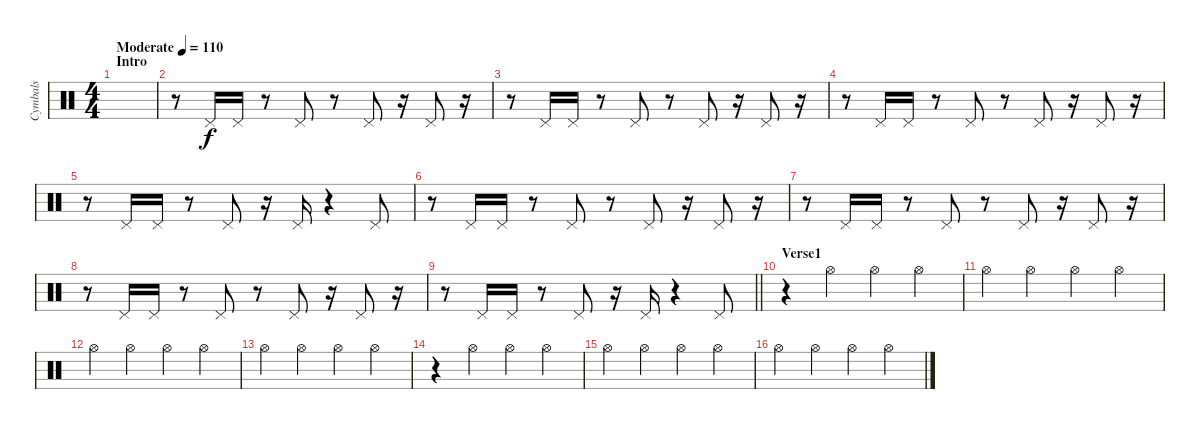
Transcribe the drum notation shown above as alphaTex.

\track ("Cymbals" "Cymbals") {instrument percussion}
\staff {score}
\articulation defaults
\ts (4 4)
\section ("" "Intro")
\tempo (110 "Moderate")
\clef neutral
\ks c
|
r.8 "Pedal Hi-Hat (hit)".16 "Pedal Hi-Hat (hit)".16 r.8 "Pedal Hi-Hat (hit)".8 r.8 "Pedal Hi-Hat (hit)".8 r.16 "Pedal Hi-Hat (hit)".8 r.16 |
r.8 "Pedal Hi-Hat (hit)".16 "Pedal Hi-Hat (hit)".16 r.8 "Pedal Hi-Hat (hit)".8 r.8 "Pedal Hi-Hat (hit)".8 r.16 "Pedal Hi-Hat (hit)".8 r.16 |
r.8 "Pedal Hi-Hat (hit)".16 "Pedal Hi-Hat (hit)".16 r.8 "Pedal Hi-Hat (hit)".8 r.8 "Pedal Hi-Hat (hit)".8 r.16 "Pedal Hi-Hat (hit)".8 r.16 |
r.8 "Pedal Hi-Hat (hit)".16 "Pedal Hi-Hat (hit)".16 r.8 "Pedal Hi-Hat (hit)".8 r.16 "Pedal Hi-Hat (hit)".16 r.4 "Pedal Hi-Hat (hit)".8 |
r.8 "Pedal Hi-Hat (hit)".16 "Pedal Hi-Hat (hit)".16 r.8 "Pedal Hi-Hat (hit)".8 r.8 "Pedal Hi-Hat (hit)".8 r.16 "Pedal Hi-Hat (hit)".8 r.16 |
r.8 "Pedal Hi-Hat (hit)".16 "Pedal Hi-Hat (hit)".16 r.8 "Pedal Hi-Hat (hit)".8 r.8 "Pedal Hi-Hat (hit)".8 r.16 "Pedal Hi-Hat (hit)".8 r.16 |
r.8 "Pedal Hi-Hat (hit)".16 "Pedal Hi-Hat (hit)".16 r.8 "Pedal Hi-Hat (hit)".8 r.8 "Pedal Hi-Hat (hit)".8 r.16 "Pedal Hi-Hat (hit)".8 r.16 |
\barLineRight lightlight
r.8 "Pedal Hi-Hat (hit)".16 "Pedal Hi-Hat (hit)".16 r.8 "Pedal Hi-Hat (hit)".8 r.16 "Pedal Hi-Hat (hit)".16 r.4 "Pedal Hi-Hat (hit)".8 |
\section ("" "Verse1")
r.4 "Hi-Hat (open)".4 "Hi-Hat (open)".4 "Hi-Hat (open)".4 |
"Hi-Hat (open)".4 "Hi-Hat (open)".4 "Hi-Hat (open)".4 "Hi-Hat (open)".4 |
"Hi-Hat (open)".4 "Hi-Hat (open)".4 "Hi-Hat (open)".4 "Hi-Hat (open)".4 |
"Hi-Hat (open)".4 "Hi-Hat (open)".4 "Hi-Hat (open)".4 "Hi-Hat (open)".4 |
r.4 "Hi-Hat (open)".4 "Hi-Hat (open)".4 "Hi-Hat (open)".4 |
"Hi-Hat (open)".4 "Hi-Hat (open)".4 "Hi-Hat (open)".4 "Hi-Hat (open)".4 |
"Hi-Hat (open)".4 "Hi-Hat (open)".4 "Hi-Hat (open)".4 "Hi-Hat (open)".4
